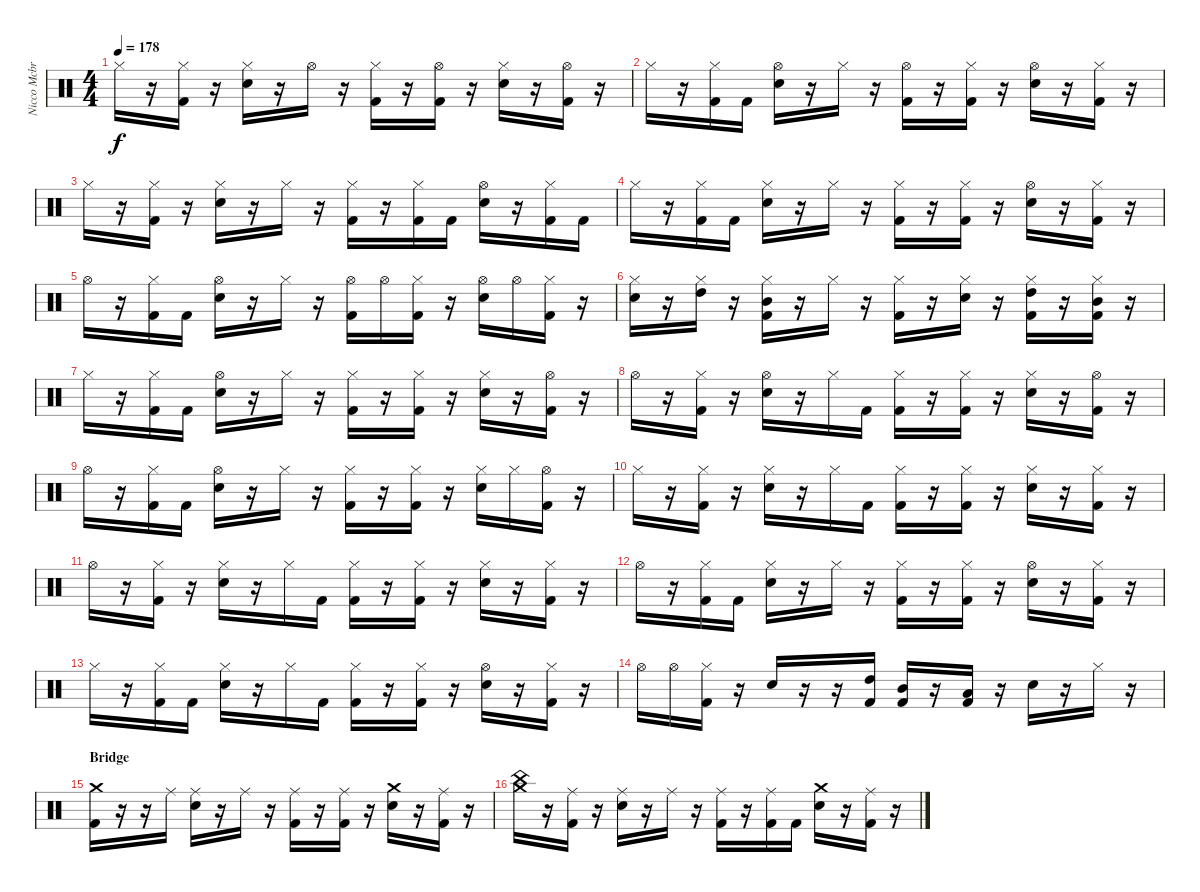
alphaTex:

\track ("Nicco Mcbrian - Drums" "Nicco Mcbr") {instrument percussion}
\staff {score}
\articulation defaults
\ts (4 4)
\tempo 178
\clef neutral
\ks c "Hi-Hat (closed)".16{dy f}
r.16 ("Hi-Hat (closed)" "Kick (hit) 2").16 r.16 ("Hi-Hat (closed)" "Snare (hit) 2").16 r.16 "Hi-Hat (open)".16 r.16 ("Hi-Hat (closed)" "Kick (hit) 2").16 r.16 ("Hi-Hat (open)" "Kick (hit) 2").16 r.16 ("Hi-Hat (closed)" "Snare (hit) 2").16 r.16 ("Hi-Hat (open)" "Kick (hit) 2").16 r.16 |
"Hi-Hat (closed)".16 r.16 ("Hi-Hat (closed)" "Kick (hit) 2").16 "Kick (hit) 2".16 ("Hi-Hat (open)" "Snare (hit) 2").16 r.16 "Hi-Hat (closed)".16 r.16 ("Hi-Hat (open)" "Kick (hit) 2").16 r.16 ("Hi-Hat (closed)" "Kick (hit) 2").16 r.16 ("Hi-Hat (open)" "Snare (hit) 2").16 r.16 ("Hi-Hat (closed)" "Kick (hit) 2").16 r.16 |
"Hi-Hat (closed)".16 r.16 ("Hi-Hat (closed)" "Kick (hit) 2").16 r.16 ("Hi-Hat (closed)" "Snare (hit) 2").16 r.16 "Hi-Hat (closed)".16 r.16 ("Hi-Hat (closed)" "Kick (hit) 2").16 r.16 ("Hi-Hat (closed)" "Kick (hit) 2").16 "Kick (hit) 2".16 ("Hi-Hat (open)" "Snare (hit) 2").16 r.16 ("Hi-Hat (closed)" "Kick (hit) 2").16 "Kick (hit) 2".16 |
"Hi-Hat (closed)".16 r.16 ("Hi-Hat (closed)" "Kick (hit) 2").16 "Kick (hit) 2".16 ("Hi-Hat (closed)" "Snare (hit) 2").16 r.16 "Hi-Hat (closed)".16 r.16 ("Hi-Hat (closed)" "Kick (hit) 2").16 r.16 ("Hi-Hat (closed)" "Kick (hit) 2").16 r.16 ("Hi-Hat (open)" "Snare (hit) 2").16 r.16 ("Hi-Hat (closed)" "Kick (hit) 2").16 r.16 |
"Hi-Hat (open)".16 r.16 ("Hi-Hat (closed)" "Kick (hit) 2").16 "Kick (hit) 2".16 ("Hi-Hat (open)" "Snare (hit) 2").16 r.16 "Hi-Hat (closed)".16 r.16 ("Hi-Hat (open)" "Kick (hit) 2").16 "Hi-Hat (open)".16 ("Hi-Hat (closed)" "Kick (hit) 2").16 r.16 ("Hi-Hat (open)" "Snare (hit) 2").16 "Hi-Hat (open)".16 ("Hi-Hat (closed)" "Kick (hit) 2").16 r.16 |
("Hi-Hat (closed)" "Snare (hit) 2").16 r.16 ("Hi-Hat (closed)" "High Tom (hit)").16 r.16 ("Hi-Hat (closed)" "Mid Tom (hit)" "Kick (hit) 2").16 r.16 "Hi-Hat (closed)".16 r.16 ("Hi-Hat (closed)" "Kick (hit) 2").16 r.16 ("Hi-Hat (closed)" "Snare (hit) 2").16 r.16 ("Hi-Hat (closed)" "High Tom (hit)" "Kick (hit) 2").16 r.16 ("Hi-Hat (closed)" "Mid Tom (hit)" "Kick (hit) 2").16 r.16 |
"Hi-Hat (closed)".16 r.16 ("Hi-Hat (closed)" "Kick (hit) 2").16 "Kick (hit) 2".16 ("Hi-Hat (open)" "Snare (hit) 2").16 r.16 "Hi-Hat (closed)".16 r.16 ("Hi-Hat (closed)" "Kick (hit) 2").16 r.16 ("Hi-Hat (closed)" "Kick (hit) 2").16 r.16 ("Hi-Hat (closed)" "Snare (hit) 2").16 r.16 ("Hi-Hat (open)" "Kick (hit) 2").16 r.16 |
"Hi-Hat (open)".16 r.16 ("Hi-Hat (closed)" "Kick (hit) 2").16 r.16 ("Hi-Hat (open)" "Snare (hit) 2").16 r.16 "Hi-Hat (closed)".16 "Kick (hit) 2".16 ("Hi-Hat (closed)" "Kick (hit) 2").16 r.16 ("Hi-Hat (closed)" "Kick (hit) 2").16 r.16 ("Hi-Hat (closed)" "Snare (hit) 2").16 r.16 ("Hi-Hat (open)" "Kick (hit) 2").16 r.16 |
"Hi-Hat (open)".16 r.16 ("Hi-Hat (closed)" "Kick (hit) 2").16 "Kick (hit) 2".16 ("Hi-Hat (open)" "Snare (hit) 2").16 r.16 "Hi-Hat (closed)".16 r.16 ("Hi-Hat (closed)" "Kick (hit) 2").16 r.16 ("Hi-Hat (closed)" "Kick (hit) 2").16 r.16 ("Hi-Hat (closed)" "Snare (hit) 2").16 "Hi-Hat (closed)".16 ("Hi-Hat (open)" "Kick (hit) 2").16 r.16 |
"Hi-Hat (closed)".16 r.16 ("Hi-Hat (closed)" "Kick (hit) 2").16 r.16 ("Hi-Hat (closed)" "Snare (hit) 2").16 r.16 "Hi-Hat (closed)".16 "Kick (hit) 2".16 ("Hi-Hat (closed)" "Kick (hit) 2").16 r.16 ("Hi-Hat (closed)" "Kick (hit) 2").16 r.16 ("Hi-Hat (closed)" "Snare (hit) 2").16 r.16 ("Hi-Hat (closed)" "Kick (hit) 2").16 r.16 |
"Hi-Hat (open)".16 r.16 ("Hi-Hat (closed)" "Kick (hit) 2").16 r.16 ("Hi-Hat (closed)" "Snare (hit) 2").16 r.16 "Hi-Hat (closed)".16 "Kick (hit) 2".16 ("Hi-Hat (closed)" "Kick (hit) 2").16 r.16 ("Hi-Hat (closed)" "Kick (hit) 2").16 r.16 ("Hi-Hat (closed)" "Snare (hit) 2").16 r.16 ("Hi-Hat (closed)" "Kick (hit) 2").16 r.16 |
"Hi-Hat (open)".16 r.16 ("Hi-Hat (closed)" "Kick (hit) 2").16 "Kick (hit) 2".16 ("Hi-Hat (closed)" "Snare (hit) 2").16 r.16 "Hi-Hat (closed)".16 r.16 ("Hi-Hat (closed)" "Kick (hit) 2").16 r.16 ("Hi-Hat (closed)" "Kick (hit) 2").16 r.16 ("Hi-Hat (open)" "Snare (hit) 2").16 r.16 ("Hi-Hat (closed)" "Kick (hit) 2").16 r.16 |
"Hi-Hat (closed)".16 r.16 ("Hi-Hat (closed)" "Kick (hit) 2").16 "Kick (hit) 2".16 ("Hi-Hat (closed)" "Snare (hit) 2").16 r.16 "Hi-Hat (closed)".16 "Kick (hit) 2".16 ("Hi-Hat (closed)" "Kick (hit) 2").16 r.16 ("Hi-Hat (closed)" "Kick (hit) 2").16 r.16 ("Hi-Hat (open)" "Snare (hit) 2").16 r.16 ("Hi-Hat (closed)" "Kick (hit) 2").16 r.16 |
"Hi-Hat (open)".16 "Hi-Hat (open)".16 ("Hi-Hat (closed)" "Kick (hit) 2").16 r.16 "Snare (hit) 2".16 r.16 r.16 ("High Tom (hit)" "Kick (hit) 2").16 ("Mid Tom (hit)" "Kick (hit) 2").16 r.16 ("Low Tom (hit)" "Kick (hit) 2").16 r.16 "Snare (hit) 2".16 r.16 "Hi-Hat (closed)".16 r.16 |
\section ("" "Bridge")
("Crash medium (hit)" "Kick (hit) 2").16 r.16 r.16 "Ride (middle)".16 ("Ride (middle)" "Snare (hit) 2").16 r.16 "Ride (middle)".16 r.16 ("Ride (middle)" "Kick (hit) 2").16 r.16 ("Ride (middle)" "Kick (hit) 2").16 r.16 ("Crash medium (hit)" "Snare (hit) 2").16 r.16 ("Ride (middle)" "Kick (hit) 2").16 r.16 |
("Crash medium (hit)" "China (hit)").16 r.16 ("Ride (middle)" "Kick (hit) 2").16 r.16 ("Ride (middle)" "Snare (hit) 2").16 r.16 "Ride (middle)".16 r.16 ("Ride (middle)" "Kick (hit) 2").16 r.16 ("Ride (middle)" "Kick (hit) 2").16 "Kick (hit) 2".16 ("Crash medium (hit)" "Snare (hit) 2").16 r.16 ("Ride (middle)" "Kick (hit) 2").16 r.16
